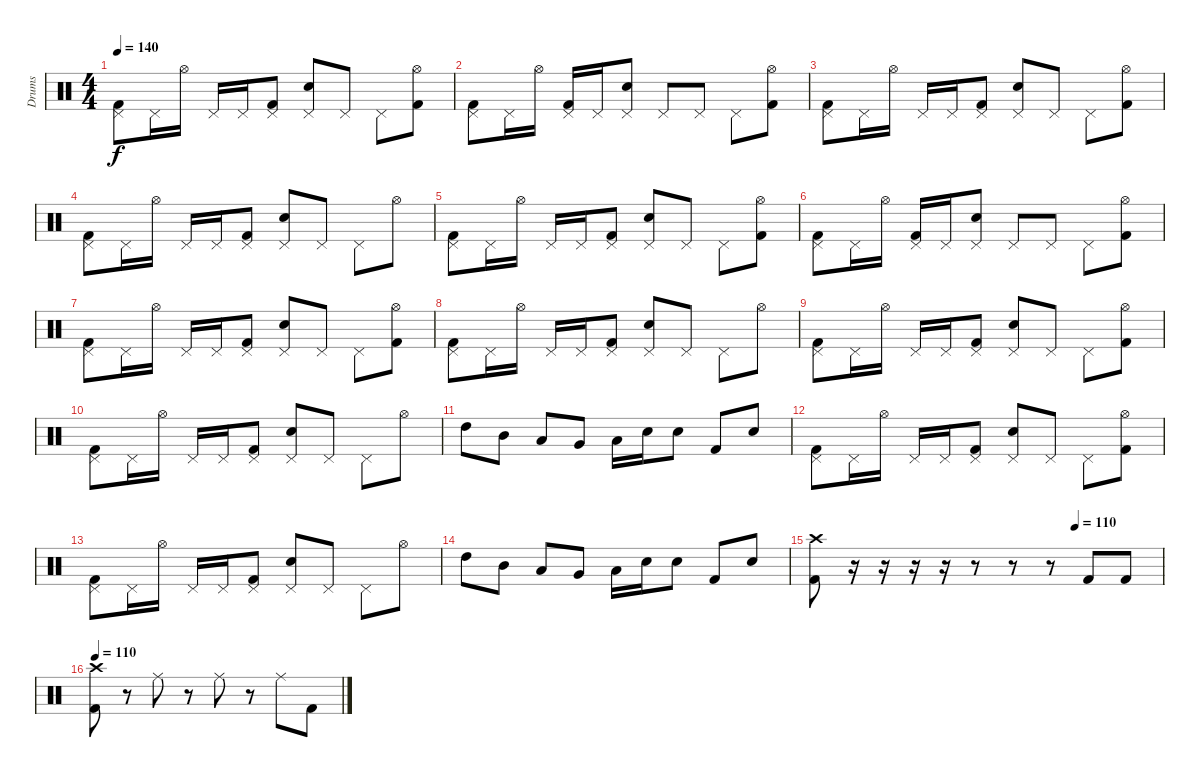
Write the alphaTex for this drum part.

\track ("Drums" "Drums") {instrument percussion}
\staff {score}
\articulation defaults
\ts (4 4)
\tempo 140
\clef neutral
\ks c
("Pedal Hi-Hat (hit)" "Kick (hit) 2").8{dy f} "Pedal Hi-Hat (hit)".16 "Hi-Hat (open)".16 "Pedal Hi-Hat (hit)".16 "Pedal Hi-Hat (hit)".16 ("Pedal Hi-Hat (hit)" "Kick (hit) 2").8 ("Pedal Hi-Hat (hit)" "Electric Snare (hit)").8 "Pedal Hi-Hat (hit)".8 "Pedal Hi-Hat (hit)".8 ("Hi-Hat (open)" "Kick (hit) 2").8 |
("Pedal Hi-Hat (hit)" "Kick (hit) 2").8 "Pedal Hi-Hat (hit)".16 "Hi-Hat (open)".16 ("Pedal Hi-Hat (hit)" "Kick (hit) 2").16 "Pedal Hi-Hat (hit)".16 ("Pedal Hi-Hat (hit)" "Electric Snare (hit)").8 "Pedal Hi-Hat (hit)".8 "Pedal Hi-Hat (hit)".8 "Pedal Hi-Hat (hit)".8 ("Hi-Hat (open)" "Kick (hit) 2").8 |
("Pedal Hi-Hat (hit)" "Kick (hit) 2").8 "Pedal Hi-Hat (hit)".16 "Hi-Hat (open)".16 "Pedal Hi-Hat (hit)".16 "Pedal Hi-Hat (hit)".16 ("Pedal Hi-Hat (hit)" "Kick (hit) 2").8 ("Pedal Hi-Hat (hit)" "Electric Snare (hit)").8 "Pedal Hi-Hat (hit)".8 "Pedal Hi-Hat (hit)".8 ("Hi-Hat (open)" "Kick (hit) 2").8 |
("Pedal Hi-Hat (hit)" "Kick (hit) 2").8 "Pedal Hi-Hat (hit)".16 "Hi-Hat (open)".16 "Pedal Hi-Hat (hit)".16 "Pedal Hi-Hat (hit)".16 ("Pedal Hi-Hat (hit)" "Kick (hit) 2").8 ("Pedal Hi-Hat (hit)" "Electric Snare (hit)").8 "Pedal Hi-Hat (hit)".8 "Pedal Hi-Hat (hit)".8 "Hi-Hat (open)".8 |
("Pedal Hi-Hat (hit)" "Kick (hit) 2").8 "Pedal Hi-Hat (hit)".16 "Hi-Hat (open)".16 "Pedal Hi-Hat (hit)".16 "Pedal Hi-Hat (hit)".16 ("Pedal Hi-Hat (hit)" "Kick (hit) 2").8 ("Pedal Hi-Hat (hit)" "Electric Snare (hit)").8 "Pedal Hi-Hat (hit)".8 "Pedal Hi-Hat (hit)".8 ("Hi-Hat (open)" "Kick (hit) 2").8 |
("Pedal Hi-Hat (hit)" "Kick (hit) 2").8 "Pedal Hi-Hat (hit)".16 "Hi-Hat (open)".16 ("Pedal Hi-Hat (hit)" "Kick (hit) 2").16 "Pedal Hi-Hat (hit)".16 ("Pedal Hi-Hat (hit)" "Electric Snare (hit)").8 "Pedal Hi-Hat (hit)".8 "Pedal Hi-Hat (hit)".8 "Pedal Hi-Hat (hit)".8 ("Hi-Hat (open)" "Kick (hit) 2").8 |
("Pedal Hi-Hat (hit)" "Kick (hit) 2").8 "Pedal Hi-Hat (hit)".16 "Hi-Hat (open)".16 "Pedal Hi-Hat (hit)".16 "Pedal Hi-Hat (hit)".16 ("Pedal Hi-Hat (hit)" "Kick (hit) 2").8 ("Pedal Hi-Hat (hit)" "Electric Snare (hit)").8 "Pedal Hi-Hat (hit)".8 "Pedal Hi-Hat (hit)".8 ("Hi-Hat (open)" "Kick (hit) 2").8 |
("Pedal Hi-Hat (hit)" "Kick (hit) 2").8 "Pedal Hi-Hat (hit)".16 "Hi-Hat (open)".16 "Pedal Hi-Hat (hit)".16 "Pedal Hi-Hat (hit)".16 ("Pedal Hi-Hat (hit)" "Kick (hit) 2").8 ("Pedal Hi-Hat (hit)" "Electric Snare (hit)").8 "Pedal Hi-Hat (hit)".8 "Pedal Hi-Hat (hit)".8 "Hi-Hat (open)".8 |
("Pedal Hi-Hat (hit)" "Kick (hit) 2").8 "Pedal Hi-Hat (hit)".16 "Hi-Hat (open)".16 "Pedal Hi-Hat (hit)".16 "Pedal Hi-Hat (hit)".16 ("Pedal Hi-Hat (hit)" "Kick (hit) 2").8 ("Pedal Hi-Hat (hit)" "Electric Snare (hit)").8 "Pedal Hi-Hat (hit)".8 "Pedal Hi-Hat (hit)".8 ("Hi-Hat (open)" "Kick (hit) 2").8 |
("Pedal Hi-Hat (hit)" "Kick (hit) 2").8 "Pedal Hi-Hat (hit)".16 "Hi-Hat (open)".16 "Pedal Hi-Hat (hit)".16 "Pedal Hi-Hat (hit)".16 ("Pedal Hi-Hat (hit)" "Kick (hit) 2").8 ("Pedal Hi-Hat (hit)" "Electric Snare (hit)").8 "Pedal Hi-Hat (hit)".8 "Pedal Hi-Hat (hit)".8 "Hi-Hat (open)".8 |
"High Tom (hit)".8 "Mid Tom (hit)".8 "Low Tom (hit)".8 "Very Low Tom (hit)".8 "Low Floor Tom (hit)".16 "Electric Snare (hit)".16 "Electric Snare (hit)".8 "Kick (hit) 2".8 "Electric Snare (hit)".8 |
("Pedal Hi-Hat (hit)" "Kick (hit) 2").8 "Pedal Hi-Hat (hit)".16 "Hi-Hat (open)".16 "Pedal Hi-Hat (hit)".16 "Pedal Hi-Hat (hit)".16 ("Pedal Hi-Hat (hit)" "Kick (hit) 2").8 ("Pedal Hi-Hat (hit)" "Electric Snare (hit)").8 "Pedal Hi-Hat (hit)".8 "Pedal Hi-Hat (hit)".8 ("Hi-Hat (open)" "Kick (hit) 2").8 |
("Pedal Hi-Hat (hit)" "Kick (hit) 2").8 "Pedal Hi-Hat (hit)".16 "Hi-Hat (open)".16 "Pedal Hi-Hat (hit)".16 "Pedal Hi-Hat (hit)".16 ("Pedal Hi-Hat (hit)" "Kick (hit) 2").8 ("Pedal Hi-Hat (hit)" "Electric Snare (hit)").8 "Pedal Hi-Hat (hit)".8 "Pedal Hi-Hat (hit)".8 "Hi-Hat (open)".8 |
"High Tom (hit)".8 "Mid Tom (hit)".8 "Low Tom (hit)".8 "Very Low Tom (hit)".8 "Low Floor Tom (hit)".16 "Electric Snare (hit)".16 "Electric Snare (hit)".8 "Kick (hit) 2".8 "Electric Snare (hit)".8 |
\tempo (110 0.75)
("Crash high (hit)" "Kick (hit) 2").8 r.16 r.16 r.16 r.16 r.8 r.8 r.8 "Kick (hit) 2".8 "Kick (hit) 2".8 |
\tempo 110
("Kick (hit) 2" "Crash high (hit)").8 r.8 "Ride (middle)".8 r.8 "Ride (middle)".8 r.8 "Ride (middle)".8 "Kick (hit) 2".8
